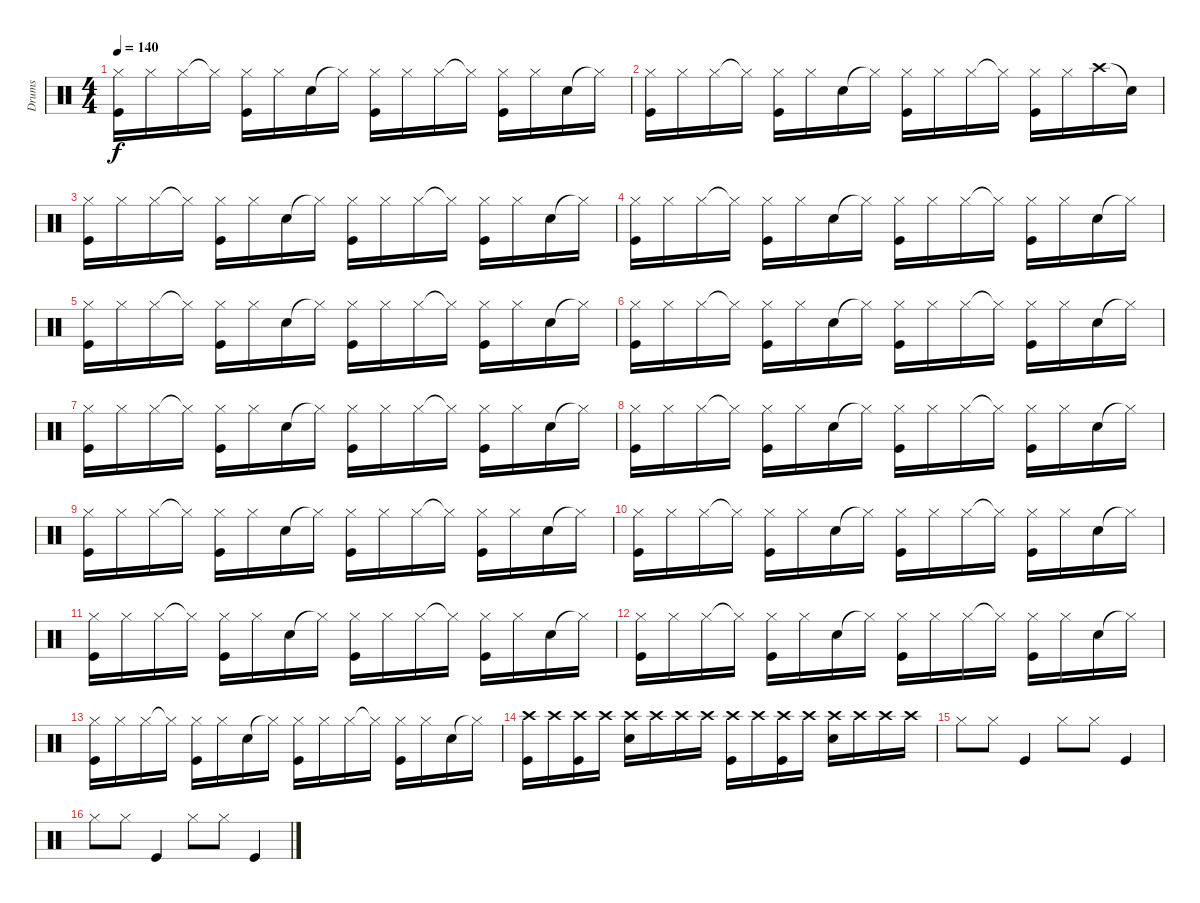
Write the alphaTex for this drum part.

\track ("Drums" "Drums") {instrument percussion}
\staff {score}
\articulation defaults
\ts (4 4)
\tempo 140
\clef neutral
\ks c
("Hi-Hat (closed)" "Kick (hit)").16{dy f} "Hi-Hat (closed)".16 "Hi-Hat (closed)".16 "Hi-Hat (closed)"{t}.16 ("Hi-Hat (closed)" "Kick (hit)").16 "Hi-Hat (closed)".16 "Snare (hit) 2".16 "Hi-Hat (closed)"{t}.16 ("Hi-Hat (closed)" "Kick (hit)").16 "Hi-Hat (closed)".16 "Hi-Hat (closed)".16 "Hi-Hat (closed)"{t}.16 ("Hi-Hat (closed)" "Kick (hit)").16 "Hi-Hat (closed)".16 "Snare (hit) 2".16 "Hi-Hat (closed)"{t}.16 |
("Hi-Hat (closed)" "Kick (hit)").16 "Hi-Hat (closed)".16 "Hi-Hat (closed)".16 "Hi-Hat (closed)"{t}.16 ("Hi-Hat (closed)" "Kick (hit)").16 "Hi-Hat (closed)".16 "Snare (hit) 2".16 "Hi-Hat (closed)"{t}.16 ("Hi-Hat (closed)" "Kick (hit)").16 "Hi-Hat (closed)".16 "Hi-Hat (closed)".16 "Hi-Hat (closed)"{t}.16 ("Hi-Hat (closed)" "Kick (hit)").16 "Hi-Hat (closed)".16 "Crash high (hit)".16 "Snare (hit)"{t}.16 |
("Hi-Hat (closed)" "Kick (hit)").16 "Hi-Hat (closed)".16 "Hi-Hat (closed)".16 "Hi-Hat (closed)"{t}.16 ("Hi-Hat (closed)" "Kick (hit)").16 "Hi-Hat (closed)".16 "Snare (hit) 2".16 "Hi-Hat (closed)"{t}.16 ("Hi-Hat (closed)" "Kick (hit)").16 "Hi-Hat (closed)".16 "Hi-Hat (closed)".16 "Hi-Hat (closed)"{t}.16 ("Hi-Hat (closed)" "Kick (hit)").16 "Hi-Hat (closed)".16 "Snare (hit) 2".16 "Hi-Hat (closed)"{t}.16 |
("Hi-Hat (closed)" "Kick (hit)").16 "Hi-Hat (closed)".16 "Hi-Hat (closed)".16 "Hi-Hat (closed)"{t}.16 ("Hi-Hat (closed)" "Kick (hit)").16 "Hi-Hat (closed)".16 "Snare (hit) 2".16 "Hi-Hat (closed)"{t}.16 ("Hi-Hat (closed)" "Kick (hit)").16 "Hi-Hat (closed)".16 "Hi-Hat (closed)".16 "Hi-Hat (closed)"{t}.16 ("Hi-Hat (closed)" "Kick (hit)").16 "Hi-Hat (closed)".16 "Snare (hit) 2".16 "Hi-Hat (closed)"{t}.16 |
("Hi-Hat (closed)" "Kick (hit)").16 "Hi-Hat (closed)".16 "Hi-Hat (closed)".16 "Hi-Hat (closed)"{t}.16 ("Hi-Hat (closed)" "Kick (hit)").16 "Hi-Hat (closed)".16 "Snare (hit) 2".16 "Hi-Hat (closed)"{t}.16 ("Hi-Hat (closed)" "Kick (hit)").16 "Hi-Hat (closed)".16 "Hi-Hat (closed)".16 "Hi-Hat (closed)"{t}.16 ("Hi-Hat (closed)" "Kick (hit)").16 "Hi-Hat (closed)".16 "Snare (hit) 2".16 "Hi-Hat (closed)"{t}.16 |
("Hi-Hat (closed)" "Kick (hit)").16 "Hi-Hat (closed)".16 "Hi-Hat (closed)".16 "Hi-Hat (closed)"{t}.16 ("Hi-Hat (closed)" "Kick (hit)").16 "Hi-Hat (closed)".16 "Snare (hit) 2".16 "Hi-Hat (closed)"{t}.16 ("Hi-Hat (closed)" "Kick (hit)").16 "Hi-Hat (closed)".16 "Hi-Hat (closed)".16 "Hi-Hat (closed)"{t}.16 ("Hi-Hat (closed)" "Kick (hit)").16 "Hi-Hat (closed)".16 "Snare (hit) 2".16 "Hi-Hat (closed)"{t}.16 |
("Hi-Hat (closed)" "Kick (hit)").16 "Hi-Hat (closed)".16 "Hi-Hat (closed)".16 "Hi-Hat (closed)"{t}.16 ("Hi-Hat (closed)" "Kick (hit)").16 "Hi-Hat (closed)".16 "Snare (hit) 2".16 "Hi-Hat (closed)"{t}.16 ("Hi-Hat (closed)" "Kick (hit)").16 "Hi-Hat (closed)".16 "Hi-Hat (closed)".16 "Hi-Hat (closed)"{t}.16 ("Hi-Hat (closed)" "Kick (hit)").16 "Hi-Hat (closed)".16 "Snare (hit) 2".16 "Hi-Hat (closed)"{t}.16 |
("Hi-Hat (closed)" "Kick (hit)").16 "Hi-Hat (closed)".16 "Hi-Hat (closed)".16 "Hi-Hat (closed)"{t}.16 ("Hi-Hat (closed)" "Kick (hit)").16 "Hi-Hat (closed)".16 "Snare (hit) 2".16 "Hi-Hat (closed)"{t}.16 ("Hi-Hat (closed)" "Kick (hit)").16 "Hi-Hat (closed)".16 "Hi-Hat (closed)".16 "Hi-Hat (closed)"{t}.16 ("Hi-Hat (closed)" "Kick (hit)").16 "Hi-Hat (closed)".16 "Snare (hit) 2".16 "Hi-Hat (closed)"{t}.16 |
("Hi-Hat (closed)" "Kick (hit)").16 "Hi-Hat (closed)".16 "Hi-Hat (closed)".16 "Hi-Hat (closed)"{t}.16 ("Hi-Hat (closed)" "Kick (hit)").16 "Hi-Hat (closed)".16 "Snare (hit) 2".16 "Hi-Hat (closed)"{t}.16 ("Hi-Hat (closed)" "Kick (hit)").16 "Hi-Hat (closed)".16 "Hi-Hat (closed)".16 "Hi-Hat (closed)"{t}.16 ("Hi-Hat (closed)" "Kick (hit)").16 "Hi-Hat (closed)".16 "Snare (hit) 2".16 "Hi-Hat (closed)"{t}.16 |
("Hi-Hat (closed)" "Kick (hit)").16 "Hi-Hat (closed)".16 "Hi-Hat (closed)".16 "Hi-Hat (closed)"{t}.16 ("Hi-Hat (closed)" "Kick (hit)").16 "Hi-Hat (closed)".16 "Snare (hit) 2".16 "Hi-Hat (closed)"{t}.16 ("Hi-Hat (closed)" "Kick (hit)").16 "Hi-Hat (closed)".16 "Hi-Hat (closed)".16 "Hi-Hat (closed)"{t}.16 ("Hi-Hat (closed)" "Kick (hit)").16 "Hi-Hat (closed)".16 "Snare (hit) 2".16 "Hi-Hat (closed)"{t}.16 |
("Hi-Hat (closed)" "Kick (hit)").16 "Hi-Hat (closed)".16 "Hi-Hat (closed)".16 "Hi-Hat (closed)"{t}.16 ("Hi-Hat (closed)" "Kick (hit)").16 "Hi-Hat (closed)".16 "Snare (hit) 2".16 "Hi-Hat (closed)"{t}.16 ("Hi-Hat (closed)" "Kick (hit)").16 "Hi-Hat (closed)".16 "Hi-Hat (closed)".16 "Hi-Hat (closed)"{t}.16 ("Hi-Hat (closed)" "Kick (hit)").16 "Hi-Hat (closed)".16 "Snare (hit) 2".16 "Hi-Hat (closed)"{t}.16 |
("Hi-Hat (closed)" "Kick (hit)").16 "Hi-Hat (closed)".16 "Hi-Hat (closed)".16 "Hi-Hat (closed)"{t}.16 ("Hi-Hat (closed)" "Kick (hit)").16 "Hi-Hat (closed)".16 "Snare (hit) 2".16 "Hi-Hat (closed)"{t}.16 ("Hi-Hat (closed)" "Kick (hit)").16 "Hi-Hat (closed)".16 "Hi-Hat (closed)".16 "Hi-Hat (closed)"{t}.16 ("Hi-Hat (closed)" "Kick (hit)").16 "Hi-Hat (closed)".16 "Snare (hit) 2".16 "Hi-Hat (closed)"{t}.16 |
("Hi-Hat (closed)" "Kick (hit)").16 "Hi-Hat (closed)".16 "Hi-Hat (closed)".16 "Hi-Hat (closed)"{t}.16 ("Hi-Hat (closed)" "Kick (hit)").16 "Hi-Hat (closed)".16 "Snare (hit) 2".16 "Hi-Hat (closed)"{t}.16 ("Hi-Hat (closed)" "Kick (hit)").16 "Hi-Hat (closed)".16 "Hi-Hat (closed)".16 "Hi-Hat (closed)"{t}.16 ("Hi-Hat (closed)" "Kick (hit)").16 "Hi-Hat (closed)".16 "Snare (hit) 2".16 "Hi-Hat (closed)"{t}.16 |
("Crash high (hit)" "Kick (hit)").16 "Crash high (hit)".16 ("Crash high (hit)" "Kick (hit)").16 "Crash high (hit)".16 ("Crash high (hit)" "Snare (hit) 2").16 "Crash high (hit)".16 "Crash high (hit)".16 "Crash high (hit)".16 ("Crash high (hit)" "Kick (hit)").16 "Crash high (hit)".16 ("Crash high (hit)" "Kick (hit)").16 "Crash high (hit)".16 ("Crash high (hit)" "Snare (hit) 2").16 "Crash high (hit)".16 "Crash high (hit)".16 "Crash high (hit)".16 |
"Hi-Hat (closed)".8 "Hi-Hat (closed)".8 "Kick (hit)".4 "Hi-Hat (closed)".8 "Hi-Hat (closed)".8 "Kick (hit)".4 |
"Hi-Hat (closed)".8 "Hi-Hat (closed)".8 "Kick (hit)".4 "Hi-Hat (closed)".8 "Hi-Hat (closed)".8 "Kick (hit)".4
